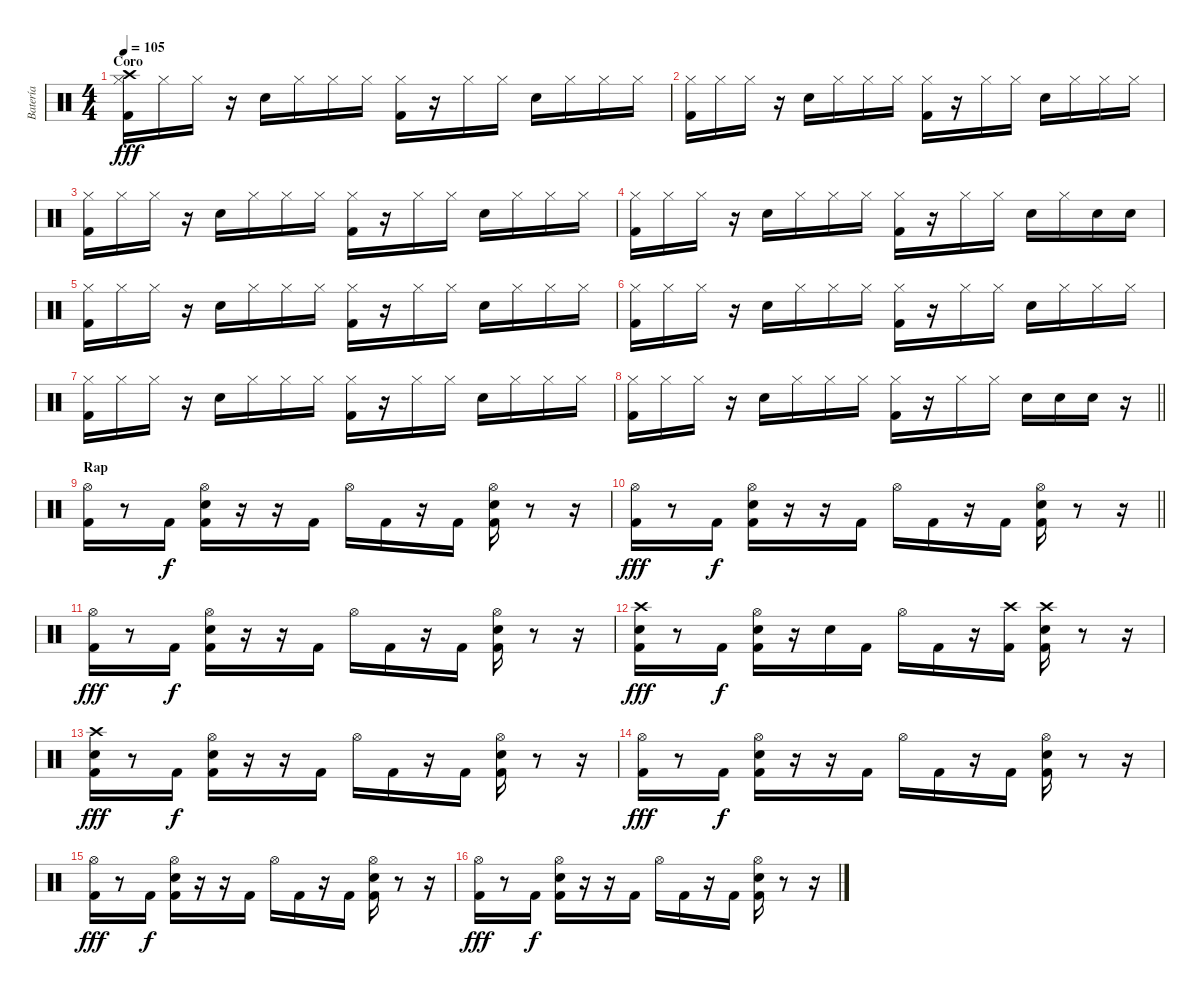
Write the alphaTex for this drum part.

\track ("Batería" "Batería") {instrument percussion}
\staff {score}
\articulation defaults
\ts (4 4)
\section ("" "Coro")
\tempo 105
\clef neutral
\ks c
("Crash high (hit)" "Hi-Hat (closed)" "Kick (hit) 2").16{dy fff} "Hi-Hat (closed)".16 "Hi-Hat (closed)".16 r.16 "Electric Snare (hit)".16 "Hi-Hat (closed)".16 "Hi-Hat (closed)".16 "Hi-Hat (closed)".16 ("Hi-Hat (closed)" "Kick (hit) 2").16 r.16 "Hi-Hat (closed)".16 "Hi-Hat (closed)".16 "Electric Snare (hit)".16 "Hi-Hat (closed)".16 "Hi-Hat (closed)".16 "Hi-Hat (closed)".16 |
("Hi-Hat (closed)" "Kick (hit) 2").16 "Hi-Hat (closed)".16 "Hi-Hat (closed)".16 r.16 "Electric Snare (hit)".16 "Hi-Hat (closed)".16 "Hi-Hat (closed)".16 "Hi-Hat (closed)".16 ("Hi-Hat (closed)" "Kick (hit) 2").16 r.16 "Hi-Hat (closed)".16 "Hi-Hat (closed)".16 "Electric Snare (hit)".16 "Hi-Hat (closed)".16 "Hi-Hat (closed)".16 "Hi-Hat (closed)".16 |
("Hi-Hat (closed)" "Kick (hit) 2").16 "Hi-Hat (closed)".16 "Hi-Hat (closed)".16 r.16 "Electric Snare (hit)".16 "Hi-Hat (closed)".16 "Hi-Hat (closed)".16 "Hi-Hat (closed)".16 ("Hi-Hat (closed)" "Kick (hit) 2").16 r.16 "Hi-Hat (closed)".16 "Hi-Hat (closed)".16 "Electric Snare (hit)".16 "Hi-Hat (closed)".16 "Hi-Hat (closed)".16 "Hi-Hat (closed)".16 |
("Hi-Hat (closed)" "Kick (hit) 2").16 "Hi-Hat (closed)".16 "Hi-Hat (closed)".16 r.16 "Electric Snare (hit)".16 "Hi-Hat (closed)".16 "Hi-Hat (closed)".16 "Hi-Hat (closed)".16 ("Hi-Hat (closed)" "Kick (hit) 2").16 r.16 "Hi-Hat (closed)".16 "Hi-Hat (closed)".16 "Electric Snare (hit)".16 "Hi-Hat (closed)".16 "Electric Snare (hit)".16 "Electric Snare (hit)".16 |
("Hi-Hat (closed)" "Kick (hit) 2").16 "Hi-Hat (closed)".16 "Hi-Hat (closed)".16 r.16 "Electric Snare (hit)".16 "Hi-Hat (closed)".16 "Hi-Hat (closed)".16 "Hi-Hat (closed)".16 ("Hi-Hat (closed)" "Kick (hit) 2").16 r.16 "Hi-Hat (closed)".16 "Hi-Hat (closed)".16 "Electric Snare (hit)".16 "Hi-Hat (closed)".16 "Hi-Hat (closed)".16 "Hi-Hat (closed)".16 |
("Hi-Hat (closed)" "Kick (hit) 2").16 "Hi-Hat (closed)".16 "Hi-Hat (closed)".16 r.16 "Electric Snare (hit)".16 "Hi-Hat (closed)".16 "Hi-Hat (closed)".16 "Hi-Hat (closed)".16 ("Hi-Hat (closed)" "Kick (hit) 2").16 r.16 "Hi-Hat (closed)".16 "Hi-Hat (closed)".16 "Electric Snare (hit)".16 "Hi-Hat (closed)".16 "Hi-Hat (closed)".16 "Hi-Hat (closed)".16 |
("Hi-Hat (closed)" "Kick (hit) 2").16 "Hi-Hat (closed)".16 "Hi-Hat (closed)".16 r.16 "Electric Snare (hit)".16 "Hi-Hat (closed)".16 "Hi-Hat (closed)".16 "Hi-Hat (closed)".16 ("Hi-Hat (closed)" "Kick (hit) 2").16 r.16 "Hi-Hat (closed)".16 "Hi-Hat (closed)".16 "Electric Snare (hit)".16 "Hi-Hat (closed)".16 "Hi-Hat (closed)".16 "Hi-Hat (closed)".16 |
\barLineRight lightlight
("Hi-Hat (closed)" "Kick (hit) 2").16 "Hi-Hat (closed)".16 "Hi-Hat (closed)".16 r.16 "Electric Snare (hit)".16 "Hi-Hat (closed)".16 "Hi-Hat (closed)".16 "Hi-Hat (closed)".16 ("Hi-Hat (closed)" "Kick (hit) 2").16 r.16 "Hi-Hat (closed)".16 "Hi-Hat (closed)".16 "Electric Snare (hit)".16 "Electric Snare (hit)".16 "Snare (hit) 2".16 r.16 |
\section ("" "Rap")
("Hi-Hat (open)" "Kick (hit) 2").16 r.8 "Kick (hit) 2".16{dy f} ("Hi-Hat (open)" "Electric Snare (hit)" "Kick (hit) 2").16 r.16 r.16 "Kick (hit) 2".16 "Hi-Hat (open)".16 "Kick (hit) 2".16 r.16 "Kick (hit) 2".16 ("Hi-Hat (open)" "Electric Snare (hit)" "Kick (hit) 2").16 r.8 r.16 |
\barLineRight lightlight
("Hi-Hat (open)" "Kick (hit) 2").16{dy fff} r.8 "Kick (hit) 2".16{dy f} ("Hi-Hat (open)" "Electric Snare (hit)" "Kick (hit) 2").16 r.16 r.16 "Kick (hit) 2".16 "Hi-Hat (open)".16 "Kick (hit) 2".16 r.16 "Kick (hit) 2".16 ("Hi-Hat (open)" "Electric Snare (hit)" "Kick (hit) 2").16 r.8 r.16 |
("Hi-Hat (open)" "Kick (hit) 2").16{dy fff} r.8 "Kick (hit) 2".16{dy f} ("Hi-Hat (open)" "Electric Snare (hit)" "Kick (hit) 2").16 r.16 r.16 "Kick (hit) 2".16 "Hi-Hat (open)".16 "Kick (hit) 2".16 r.16 "Kick (hit) 2".16 ("Hi-Hat (open)" "Electric Snare (hit)" "Kick (hit) 2").16 r.8 r.16 |
("Crash high (hit)" "Electric Snare (hit)" "Kick (hit) 2").16{dy fff} r.8 "Kick (hit) 2".16{dy f} ("Hi-Hat (open)" "Electric Snare (hit)" "Kick (hit) 2").16 r.16 "Electric Snare (hit)".16 "Kick (hit) 2".16 "Hi-Hat (open)".16 "Kick (hit) 2".16 r.16 ("Crash high (hit)" "Kick (hit) 2").16 ("Crash high (hit)" "Electric Snare (hit)" "Kick (hit) 2").16 r.8 r.16 |
("Crash high (hit)" "Electric Snare (hit)" "Kick (hit) 2").16{dy fff} r.8 "Kick (hit) 2".16{dy f} ("Hi-Hat (open)" "Electric Snare (hit)" "Kick (hit) 2").16 r.16 r.16 "Kick (hit) 2".16 "Hi-Hat (open)".16 "Kick (hit) 2".16 r.16 "Kick (hit) 2".16 ("Hi-Hat (open)" "Electric Snare (hit)" "Kick (hit) 2").16 r.8 r.16 |
("Hi-Hat (open)" "Kick (hit) 2").16{dy fff} r.8 "Kick (hit) 2".16{dy f} ("Hi-Hat (open)" "Electric Snare (hit)" "Kick (hit) 2").16 r.16 r.16 "Kick (hit) 2".16 "Hi-Hat (open)".16 "Kick (hit) 2".16 r.16 "Kick (hit) 2".16 ("Hi-Hat (open)" "Electric Snare (hit)" "Kick (hit) 2").16 r.8 r.16 |
("Hi-Hat (open)" "Kick (hit) 2").16{dy fff} r.8 "Kick (hit) 2".16{dy f} ("Hi-Hat (open)" "Electric Snare (hit)" "Kick (hit) 2").16 r.16 r.16 "Kick (hit) 2".16 "Hi-Hat (open)".16 "Kick (hit) 2".16 r.16 "Kick (hit) 2".16 ("Hi-Hat (open)" "Electric Snare (hit)" "Kick (hit) 2").16 r.8 r.16 |
("Hi-Hat (open)" "Kick (hit) 2").16{dy fff} r.8 "Kick (hit) 2".16{dy f} ("Hi-Hat (open)" "Electric Snare (hit)" "Kick (hit) 2").16 r.16 r.16 "Kick (hit) 2".16 "Hi-Hat (open)".16 "Kick (hit) 2".16 r.16 "Kick (hit) 2".16 ("Hi-Hat (open)" "Electric Snare (hit)" "Kick (hit) 2").16 r.8 r.16
